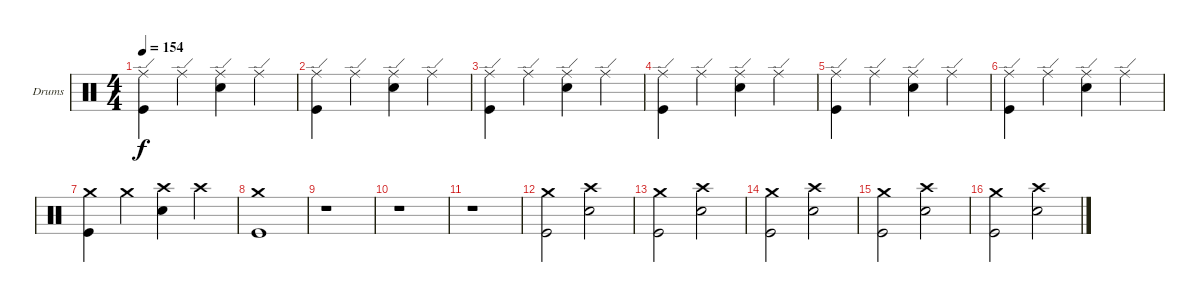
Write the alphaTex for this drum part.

\bracketExtendMode groupsimilarinstruments
\firstSystemTrackNameOrientation horizontal
\otherSystemsTrackNameOrientation horizontal
\track ("Drumkit (Christoph)" "Drums") {instrument percussion}
\staff {score}
\articulation defaults
\ts (4 4)
\tempo 154
\clef neutral
\ks c
("Ride (edge)" "Kick (hit)").4{dy f} "Ride (edge)".4 ("Ride (edge)" "Snare (hit) 2").4 "Ride (edge)".4 |
("Ride (edge)" "Kick (hit)").4 "Ride (edge)".4 ("Ride (edge)" "Snare (hit) 2").4 "Ride (edge)".4 |
("Ride (edge)" "Kick (hit)").4 "Ride (edge)".4 ("Ride (edge)" "Snare (hit) 2").4 "Ride (edge)".4 |
("Ride (edge)" "Kick (hit)").4 "Ride (edge)".4 ("Ride (edge)" "Snare (hit) 2").4 "Ride (edge)".4 |
("Ride (edge)" "Kick (hit)").4 "Ride (edge)".4 ("Ride (edge)" "Snare (hit) 2").4 "Ride (edge)".4 |
("Ride (edge)" "Kick (hit)").4 "Ride (edge)".4 ("Ride (edge)" "Snare (hit) 2").4 "Ride (edge)".4 |
("Crash medium (hit)" "Kick (hit)").4 "Crash medium (hit)".4 ("Crash high (hit)" "Snare (hit) 2").4 "Crash high (hit)".4 |
("Crash medium (hit)" "Kick (hit)").1 |
r.1 |
r.1 |
r.1 |
("Crash medium (hit)" "Kick (hit)").2 ("Crash high (hit)" "Snare (hit) 2").2 |
("Crash medium (hit)" "Kick (hit)").2 ("Crash high (hit)" "Snare (hit) 2").2 |
("Crash medium (hit)" "Kick (hit)").2 ("Crash high (hit)" "Snare (hit) 2").2 |
("Crash medium (hit)" "Kick (hit)").2 ("Crash high (hit)" "Snare (hit) 2").2 |
("Crash medium (hit)" "Kick (hit)").2 ("Crash high (hit)" "Snare (hit) 2").2
